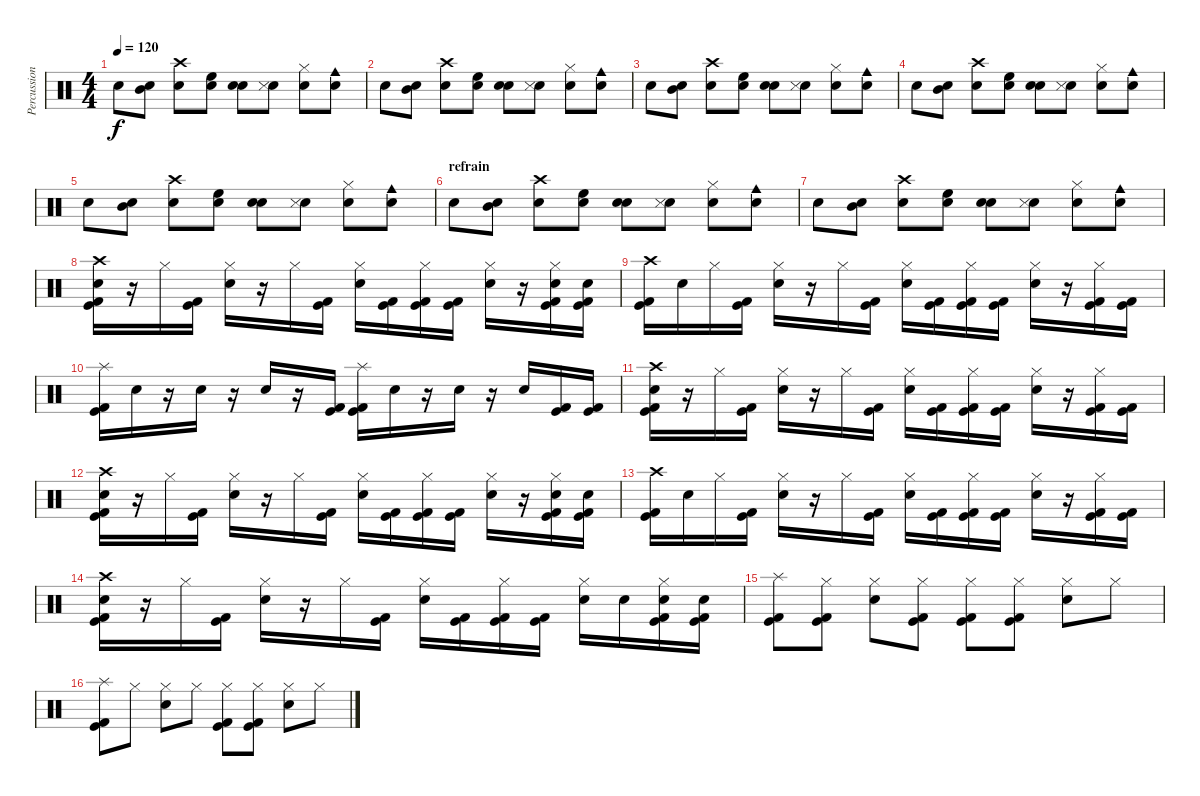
\track ("Percussions" "Percussion") {instrument percussion}
\staff {score}
\articulation defaults
\ts (4 4)
\tempo 120
\clef neutral
\ks c "Snare (hit) 2".8{dy f}
("Snare (hit) 2" "Mid Tom (hit)").8 ("Snare (hit) 2" "Crash high (hit)").8 ("Snare (hit) 2" "High Floor Tom (hit)").8 ("Snare (hit) 2" "Snare (hit) 2").8 ("Snare (hit) 2" "Snare (side stick) 3").8 ("Snare (hit) 2" "Hi-Hat (closed)").8 ("Snare (hit) 2" "Cowbell medium (hit)").8 |
"Snare (hit) 2".8 ("Snare (hit) 2" "Mid Tom (hit)").8 ("Snare (hit) 2" "Crash high (hit)").8 ("Snare (hit) 2" "High Floor Tom (hit)").8 ("Snare (hit) 2" "Snare (hit) 2").8 ("Snare (hit) 2" "Snare (side stick) 3").8 ("Snare (hit) 2" "Hi-Hat (closed)").8 ("Snare (hit) 2" "Cowbell medium (hit)").8 |
"Snare (hit) 2".8 ("Snare (hit) 2" "Mid Tom (hit)").8 ("Snare (hit) 2" "Crash high (hit)").8 ("Snare (hit) 2" "High Floor Tom (hit)").8 ("Snare (hit) 2" "Snare (hit) 2").8 ("Snare (hit) 2" "Snare (side stick) 3").8 ("Snare (hit) 2" "Hi-Hat (closed)").8 ("Snare (hit) 2" "Cowbell medium (hit)").8 |
"Snare (hit) 2".8 ("Snare (hit) 2" "Mid Tom (hit)").8 ("Snare (hit) 2" "Crash high (hit)").8 ("Snare (hit) 2" "High Floor Tom (hit)").8 ("Snare (hit) 2" "Snare (hit) 2").8 ("Snare (hit) 2" "Snare (side stick) 3").8 ("Snare (hit) 2" "Hi-Hat (closed)").8 ("Snare (hit) 2" "Cowbell medium (hit)").8 |
"Snare (hit) 2".8 ("Snare (hit) 2" "Mid Tom (hit)").8 ("Snare (hit) 2" "Crash high (hit)").8 ("Snare (hit) 2" "High Floor Tom (hit)").8 ("Snare (hit) 2" "Snare (hit) 2").8 ("Snare (hit) 2" "Snare (side stick) 3").8 ("Snare (hit) 2" "Hi-Hat (closed)").8 ("Snare (hit) 2" "Cowbell medium (hit)").8 |
\section ("" "refrain")
"Snare (hit) 2".8 ("Snare (hit) 2" "Mid Tom (hit)").8 ("Snare (hit) 2" "Crash high (hit)").8 ("Snare (hit) 2" "High Floor Tom (hit)").8 ("Snare (hit) 2" "Snare (hit) 2").8 ("Snare (hit) 2" "Snare (side stick) 3").8 ("Snare (hit) 2" "Hi-Hat (closed)").8 ("Snare (hit) 2" "Cowbell medium (hit)").8 |
"Snare (hit) 2".8 ("Snare (hit) 2" "Mid Tom (hit)").8 ("Snare (hit) 2" "Crash high (hit)").8 ("Snare (hit) 2" "High Floor Tom (hit)").8 ("Snare (hit) 2" "Snare (hit) 2").8 ("Snare (hit) 2" "Snare (side stick) 3").8 ("Snare (hit) 2" "Hi-Hat (closed)").8 ("Snare (hit) 2" "Cowbell medium (hit)").8 |
("Crash high (hit)" "Electric Snare (hit)" "Kick (hit) 2" "Kick (hit)").16 r.16 "Hi-Hat (closed)".16 ("Kick (hit)" "Kick (hit) 2").16 ("Hi-Hat (closed)" "Electric Snare (hit)").16 r.16 "Hi-Hat (closed)".16 ("Kick (hit) 2" "Kick (hit)").16 ("Hi-Hat (closed)" "Electric Snare (hit)").16 ("Kick (hit) 2" "Kick (hit)").16 ("Hi-Hat (closed)" "Kick (hit) 2" "Kick (hit)").16 ("Kick (hit) 2" "Kick (hit)").16 ("Hi-Hat (closed)" "Electric Snare (hit)").16 r.16 ("Hi-Hat (closed)" "Electric Snare (hit)" "Kick (hit) 2" "Kick (hit)").16 ("Electric Snare (hit)" "Kick (hit) 2" "Kick (hit)").16 |
("Crash high (hit)" "Kick (hit) 2" "Kick (hit)").16 "Electric Snare (hit)".16 "Hi-Hat (closed)".16 ("Kick (hit)" "Kick (hit) 2").16 ("Hi-Hat (closed)" "Electric Snare (hit)").16 r.16 "Hi-Hat (closed)".16 ("Kick (hit) 2" "Kick (hit)").16 ("Hi-Hat (closed)" "Electric Snare (hit)").16 ("Kick (hit) 2" "Kick (hit)").16 ("Hi-Hat (closed)" "Kick (hit) 2" "Kick (hit)").16 ("Kick (hit) 2" "Kick (hit)").16 ("Hi-Hat (closed)" "Electric Snare (hit)").16 r.16 ("Hi-Hat (closed)" "Kick (hit) 2" "Kick (hit)").16 ("Kick (hit) 2" "Kick (hit)").16 |
("Splash (hit)" "Kick (hit) 2" "Kick (hit)").16 "Electric Snare (hit)".16 r.16 "Electric Snare (hit)".16 r.16 "Electric Snare (hit)".16 r.16 ("Kick (hit) 2" "Kick (hit)").16 ("Splash (hit)" "Kick (hit) 2" "Kick (hit)").16 "Electric Snare (hit)".16 r.16 "Electric Snare (hit)".16 r.16 "Electric Snare (hit)".16 ("Kick (hit) 2" "Kick (hit)").16 ("Kick (hit) 2" "Kick (hit)").16 |
("Crash high (hit)" "Electric Snare (hit)" "Kick (hit) 2" "Kick (hit)").16 r.16 "Hi-Hat (closed)".16 ("Kick (hit)" "Kick (hit) 2").16 ("Hi-Hat (closed)" "Electric Snare (hit)").16 r.16 "Hi-Hat (closed)".16 ("Kick (hit) 2" "Kick (hit)").16 ("Hi-Hat (closed)" "Electric Snare (hit)").16 ("Kick (hit) 2" "Kick (hit)").16 ("Hi-Hat (closed)" "Kick (hit) 2" "Kick (hit)").16 ("Kick (hit) 2" "Kick (hit)").16 ("Hi-Hat (closed)" "Electric Snare (hit)").16 r.16 ("Hi-Hat (closed)" "Kick (hit) 2" "Kick (hit)").16 ("Kick (hit) 2" "Kick (hit)").16 |
("Crash high (hit)" "Electric Snare (hit)" "Kick (hit) 2" "Kick (hit)").16 r.16 "Hi-Hat (closed)".16 ("Kick (hit)" "Kick (hit) 2").16 ("Hi-Hat (closed)" "Electric Snare (hit)").16 r.16 "Hi-Hat (closed)".16 ("Kick (hit) 2" "Kick (hit)").16 ("Hi-Hat (closed)" "Electric Snare (hit)").16 ("Kick (hit) 2" "Kick (hit)").16 ("Hi-Hat (closed)" "Kick (hit) 2" "Kick (hit)").16 ("Kick (hit) 2" "Kick (hit)").16 ("Hi-Hat (closed)" "Electric Snare (hit)").16 r.16 ("Hi-Hat (closed)" "Electric Snare (hit)" "Kick (hit) 2" "Kick (hit)").16 ("Electric Snare (hit)" "Kick (hit) 2" "Kick (hit)").16 |
("Crash high (hit)" "Kick (hit) 2" "Kick (hit)").16 "Electric Snare (hit)".16 "Hi-Hat (closed)".16 ("Kick (hit)" "Kick (hit) 2").16 ("Hi-Hat (closed)" "Electric Snare (hit)").16 r.16 "Hi-Hat (closed)".16 ("Kick (hit) 2" "Kick (hit)").16 ("Hi-Hat (closed)" "Electric Snare (hit)").16 ("Kick (hit) 2" "Kick (hit)").16 ("Hi-Hat (closed)" "Kick (hit) 2" "Kick (hit)").16 ("Kick (hit) 2" "Kick (hit)").16 ("Hi-Hat (closed)" "Electric Snare (hit)").16 r.16 ("Hi-Hat (closed)" "Kick (hit) 2" "Kick (hit)").16 ("Kick (hit) 2" "Kick (hit)").16 |
("Crash high (hit)" "Electric Snare (hit)" "Kick (hit) 2" "Kick (hit)").16 r.16 "Hi-Hat (closed)".16 ("Kick (hit)" "Kick (hit) 2").16 ("Hi-Hat (closed)" "Electric Snare (hit)").16 r.16 "Hi-Hat (closed)".16 ("Kick (hit) 2" "Kick (hit)").16 ("Hi-Hat (closed)" "Electric Snare (hit)").16 ("Kick (hit) 2" "Kick (hit)").16 ("Hi-Hat (closed)" "Kick (hit) 2" "Kick (hit)").16 ("Kick (hit) 2" "Kick (hit)").16 ("Hi-Hat (closed)" "Electric Snare (hit)").16 "Electric Snare (hit)".16 ("Hi-Hat (closed)" "Electric Snare (hit)" "Kick (hit) 2" "Kick (hit)").16 ("Electric Snare (hit)" "Kick (hit) 2" "Kick (hit)").16 |
("Splash (hit)" "Kick (hit) 2" "Kick (hit)").8 ("Hi-Hat (closed)" "Kick (hit) 2" "Kick (hit)").8 ("Hi-Hat (closed)" "Electric Snare (hit)").8 ("Hi-Hat (closed)" "Kick (hit) 2" "Kick (hit)").8 ("Hi-Hat (closed)" "Kick (hit) 2" "Kick (hit)").8 ("Hi-Hat (closed)" "Kick (hit) 2" "Kick (hit)").8 ("Hi-Hat (closed)" "Electric Snare (hit)").8 "Hi-Hat (closed)".8 |
("Splash (hit)" "Kick (hit) 2" "Kick (hit)").8 "Hi-Hat (closed)".8 ("Hi-Hat (closed)" "Electric Snare (hit)").8 "Hi-Hat (closed)".8 ("Hi-Hat (closed)" "Kick (hit) 2" "Kick (hit)").8 ("Hi-Hat (closed)" "Kick (hit) 2" "Kick (hit)").8 ("Hi-Hat (closed)" "Electric Snare (hit)").8 "Hi-Hat (closed)".8
